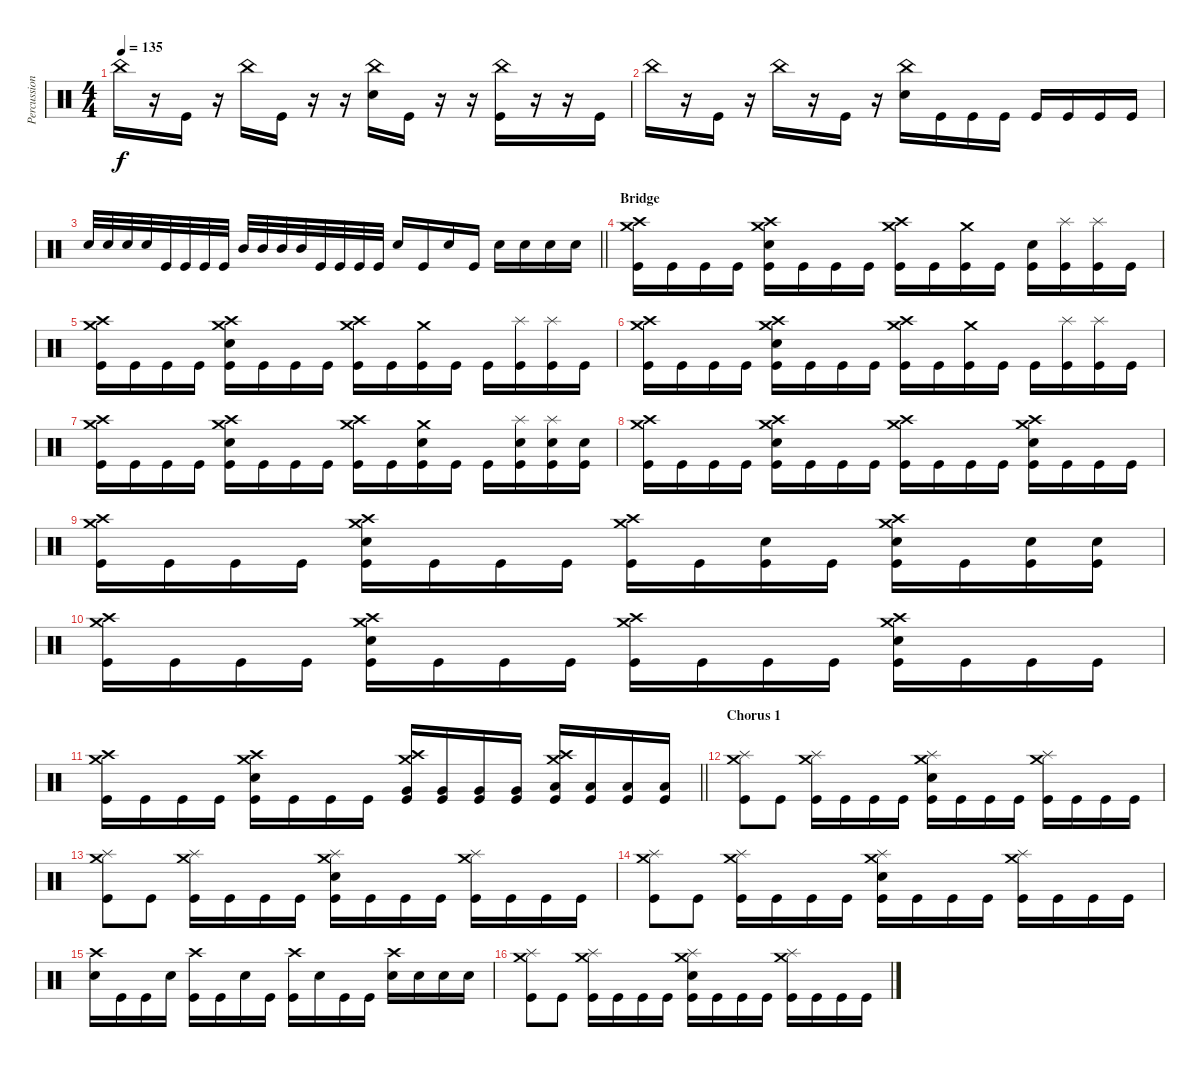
\track ("Percussion (Approx.)" "Percussion") {instrument percussion}
\staff {score}
\articulation defaults
\ts (4 4)
\tempo 135
\clef neutral
\ks c "China (hit)".16{dy f}
r.16 "Kick (hit)".16 r.16 "China (hit)".16 "Kick (hit)".16 r.16 r.16 ("China (hit)" "Electric Snare (hit)").16 "Kick (hit)".16 r.16 r.16 ("China (hit)" "Kick (hit)").16 r.16 r.16 "Kick (hit)".16 |
"China (hit)".16 r.16 "Kick (hit)".16 r.16 "China (hit)".16 r.16 "Kick (hit)".16 r.16 ("China (hit)" "Electric Snare (hit)").16 "Kick (hit)".16 "Kick (hit)".16 "Kick (hit)".16 "Kick (hit)".16 "Kick (hit)".16 "Kick (hit)".16 "Kick (hit)".16 |
\barLineRight lightlight "Electric Snare (hit)".32 "Electric Snare (hit)".32 "Electric Snare (hit)".32 "Electric Snare (hit)".32 "Kick (hit)".32 "Kick (hit)".32 "Kick (hit)".32 "Kick (hit)".32 "Mid Tom (hit)".32 "Mid Tom (hit)".32 "Mid Tom (hit)".32 "Mid Tom (hit)".32 "Kick (hit)".32 "Kick (hit)".32 "Kick (hit)".32 "Kick (hit)".32 "Electric Snare (hit)".16 "Kick (hit)".16 "Electric Snare (hit)".16 "Kick (hit)".16 "Electric Snare (hit)".16 "Electric Snare (hit)".16 "Electric Snare (hit)".16 "Electric Snare (hit)".16
|
\section ("" "Bridge")
("Crash medium (hit)" "Crash high (hit)" "Kick (hit)").16 "Kick (hit)".16 "Kick (hit)".16 "Kick (hit)".16 ("Crash medium (hit)" "Crash high (hit)" "Electric Snare (hit)" "Kick (hit)").16 "Kick (hit)".16 "Kick (hit)".16 "Kick (hit)".16 ("Crash medium (hit)" "Crash high (hit)" "Kick (hit)").16 "Kick (hit)".16 ("Crash medium (hit)" "Kick (hit)").16 "Kick (hit)".16 ("Electric Snare (hit)" "Kick (hit)").16 ("Splash (hit)" "Kick (hit)").16 ("Splash (hit)" "Kick (hit)").16 "Kick (hit)".16 |
("Crash medium (hit)" "Crash high (hit)" "Kick (hit)").16 "Kick (hit)".16 "Kick (hit)".16 "Kick (hit)".16 ("Crash medium (hit)" "Crash high (hit)" "Electric Snare (hit)" "Kick (hit)").16 "Kick (hit)".16 "Kick (hit)".16 "Kick (hit)".16 ("Crash medium (hit)" "Crash high (hit)" "Kick (hit)").16 "Kick (hit)".16 ("Crash medium (hit)" "Kick (hit)").16 "Kick (hit)".16 "Kick (hit)".16 ("Splash (hit)" "Kick (hit)").16 ("Splash (hit)" "Kick (hit)").16 "Kick (hit)".16 |
("Crash medium (hit)" "Crash high (hit)" "Kick (hit)").16 "Kick (hit)".16 "Kick (hit)".16 "Kick (hit)".16 ("Crash medium (hit)" "Crash high (hit)" "Electric Snare (hit)" "Kick (hit)").16 "Kick (hit)".16 "Kick (hit)".16 "Kick (hit)".16 ("Crash medium (hit)" "Crash high (hit)" "Kick (hit)").16 "Kick (hit)".16 ("Crash medium (hit)" "Kick (hit)").16 "Kick (hit)".16 "Kick (hit)".16 ("Splash (hit)" "Kick (hit)").16 ("Splash (hit)" "Kick (hit)").16 "Kick (hit)".16 |
("Crash medium (hit)" "Crash high (hit)" "Kick (hit)").16 "Kick (hit)".16 "Kick (hit)".16 "Kick (hit)".16 ("Crash medium (hit)" "Crash high (hit)" "Electric Snare (hit)" "Kick (hit)").16 "Kick (hit)".16 "Kick (hit)".16 "Kick (hit)".16 ("Crash medium (hit)" "Crash high (hit)" "Kick (hit)").16 "Kick (hit)".16 ("Crash medium (hit)" "Electric Snare (hit)" "Kick (hit)").16 "Kick (hit)".16 "Kick (hit)".16 ("Splash (hit)" "Electric Snare (hit)" "Kick (hit)").16 ("Splash (hit)" "Electric Snare (hit)" "Kick (hit)").16 ("Electric Snare (hit)" "Kick (hit)").16 |
("Crash medium (hit)" "Crash high (hit)" "Kick (hit)").16 "Kick (hit)".16 "Kick (hit)".16 "Kick (hit)".16 ("Crash medium (hit)" "Crash high (hit)" "Electric Snare (hit)" "Kick (hit)").16 "Kick (hit)".16 "Kick (hit)".16 "Kick (hit)".16 ("Crash medium (hit)" "Crash high (hit)" "Kick (hit)").16 "Kick (hit)".16 "Kick (hit)".16 "Kick (hit)".16 ("Crash medium (hit)" "Crash high (hit)" "Electric Snare (hit)" "Kick (hit)").16 "Kick (hit)".16 "Kick (hit)".16 "Kick (hit)".16 |
("Crash medium (hit)" "Crash high (hit)" "Kick (hit)").16 "Kick (hit)".16 "Kick (hit)".16 "Kick (hit)".16 ("Crash medium (hit)" "Crash high (hit)" "Electric Snare (hit)" "Kick (hit)").16 "Kick (hit)".16 "Kick (hit)".16 "Kick (hit)".16 ("Crash medium (hit)" "Crash high (hit)" "Kick (hit)").16 "Kick (hit)".16 ("Electric Snare (hit)" "Kick (hit)").16 "Kick (hit)".16 ("Crash medium (hit)" "Crash high (hit)" "Electric Snare (hit)" "Kick (hit)").16 "Kick (hit)".16 ("Electric Snare (hit)" "Kick (hit)").16 ("Electric Snare (hit)" "Kick (hit)").16 |
("Crash medium (hit)" "Crash high (hit)" "Kick (hit)").16 "Kick (hit)".16 "Kick (hit)".16 "Kick (hit)".16 ("Crash medium (hit)" "Crash high (hit)" "Electric Snare (hit)" "Kick (hit)").16 "Kick (hit)".16 "Kick (hit)".16 "Kick (hit)".16 ("Crash medium (hit)" "Crash high (hit)" "Kick (hit)").16 "Kick (hit)".16 "Kick (hit)".16 "Kick (hit)".16 ("Crash medium (hit)" "Crash high (hit)" "Electric Snare (hit)" "Kick (hit)").16 "Kick (hit)".16 "Kick (hit)".16 "Kick (hit)".16 |
\barLineRight lightlight
("Crash medium (hit)" "Crash high (hit)" "Kick (hit)").16 "Kick (hit)".16 "Kick (hit)".16 "Kick (hit)".16 ("Crash medium (hit)" "Crash high (hit)" "Electric Snare (hit)" "Kick (hit)").16 "Kick (hit)".16 "Kick (hit)".16 "Kick (hit)".16 ("Crash medium (hit)" "Crash high (hit)" "Very Low Tom (hit)" "Kick (hit)").16 ("Very Low Tom (hit)" "Kick (hit)").16 ("Very Low Tom (hit)" "Kick (hit)").16 ("Very Low Tom (hit)" "Kick (hit)").16 ("Crash medium (hit)" "Crash high (hit)" "Low Floor Tom (hit)" "Kick (hit)").16 ("Low Floor Tom (hit)" "Kick (hit)").16 ("Low Floor Tom (hit)" "Kick (hit)").16 ("Low Floor Tom (hit)" "Kick (hit)").16 |
\section ("" "Chorus 1")
("Crash medium (hit)" "Splash (hit)" "Kick (hit)").8 "Kick (hit)".8 ("Crash medium (hit)" "Splash (hit)" "Kick (hit)").16 "Kick (hit)".16 "Kick (hit)".16 "Kick (hit)".16 ("Crash medium (hit)" "Splash (hit)" "Electric Snare (hit)" "Kick (hit)").16 "Kick (hit)".16 "Kick (hit)".16 "Kick (hit)".16 ("Crash medium (hit)" "Splash (hit)" "Kick (hit)").16 "Kick (hit)".16 "Kick (hit)".16 "Kick (hit)".16 |
("Crash medium (hit)" "Splash (hit)" "Kick (hit)").8 "Kick (hit)".8 ("Crash medium (hit)" "Splash (hit)" "Kick (hit)").16 "Kick (hit)".16 "Kick (hit)".16 "Kick (hit)".16 ("Crash medium (hit)" "Splash (hit)" "Electric Snare (hit)" "Kick (hit)").16 "Kick (hit)".16 "Kick (hit)".16 "Kick (hit)".16 ("Crash medium (hit)" "Splash (hit)" "Kick (hit)").16 "Kick (hit)".16 "Kick (hit)".16 "Kick (hit)".16 |
("Crash medium (hit)" "Splash (hit)" "Kick (hit)").8 "Kick (hit)".8 ("Crash medium (hit)" "Splash (hit)" "Kick (hit)").16 "Kick (hit)".16 "Kick (hit)".16 "Kick (hit)".16 ("Crash medium (hit)" "Splash (hit)" "Electric Snare (hit)" "Kick (hit)").16 "Kick (hit)".16 "Kick (hit)".16 "Kick (hit)".16 ("Crash medium (hit)" "Splash (hit)" "Kick (hit)").16 "Kick (hit)".16 "Kick (hit)".16 "Kick (hit)".16 |
("Crash high (hit)" "Electric Snare (hit)").16 "Kick (hit)".16 "Kick (hit)".16 "Electric Snare (hit)".16 ("Crash high (hit)" "Kick (hit)").16 "Kick (hit)".16 "Electric Snare (hit)".16 "Kick (hit)".16 ("Crash high (hit)" "Kick (hit)").16 "Electric Snare (hit)".16 "Kick (hit)".16 "Kick (hit)".16 ("Crash high (hit)" "Electric Snare (hit)").16 "Electric Snare (hit)".16 "Electric Snare (hit)".16 "Electric Snare (hit)".16 |
("Crash medium (hit)" "Splash (hit)" "Kick (hit)").8 "Kick (hit)".8 ("Crash medium (hit)" "Splash (hit)" "Kick (hit)").16 "Kick (hit)".16 "Kick (hit)".16 "Kick (hit)".16 ("Crash medium (hit)" "Splash (hit)" "Electric Snare (hit)" "Kick (hit)").16 "Kick (hit)".16 "Kick (hit)".16 "Kick (hit)".16 ("Crash medium (hit)" "Splash (hit)" "Kick (hit)").16 "Kick (hit)".16 "Kick (hit)".16 "Kick (hit)".16
